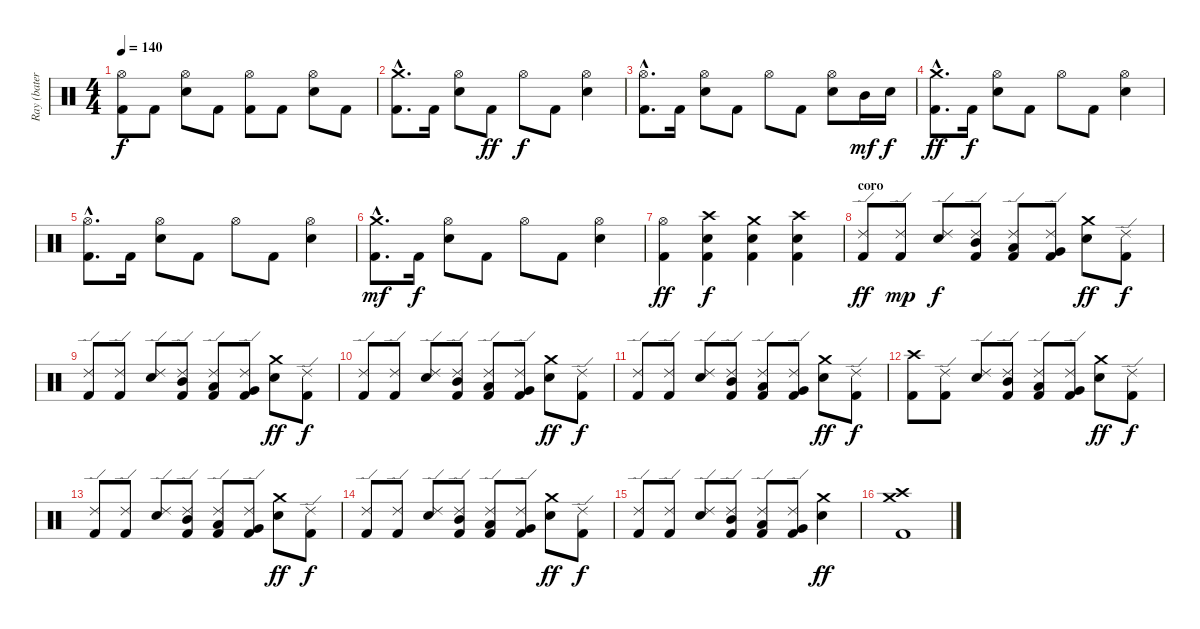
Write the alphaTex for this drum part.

\track ("Ray (batería)" "Ray (bater") {instrument percussion}
\staff {score}
\articulation defaults
\ts (4 4)
\tempo 140
\clef neutral
\ks c
("Hi-Hat (open)" "Kick (hit) 2").8{dy f} "Kick (hit) 2".8 ("Hi-Hat (open)" "Snare (hit) 2").8 "Kick (hit) 2".8 ("Hi-Hat (open)" "Kick (hit) 2").8 "Kick (hit) 2".8 ("Hi-Hat (open)" "Snare (hit) 2").8 "Kick (hit) 2".8 |
("Crash medium (hit)"{hac} "Kick (hit) 2"{hac}).8{d} "Kick (hit) 2".16 ("Hi-Hat (open)" "Snare (hit) 2").8 "Kick (hit) 2".8{dy ff} "Hi-Hat (open)".8{dy f} "Kick (hit) 2".8 ("Hi-Hat (open)" "Snare (hit) 2").4 |
("Hi-Hat (open)"{hac} "Kick (hit) 2"{hac}).8{d} "Kick (hit) 2".16 ("Hi-Hat (open)" "Snare (hit) 2").8 "Kick (hit) 2".8 "Hi-Hat (open)".8 "Kick (hit) 2".8 ("Hi-Hat (open)" "Snare (hit) 2").8 "Mid Tom (hit)".16{dy mf} "Snare (hit) 2".16{dy f} |
("Crash medium (hit)"{hac} "Kick (hit) 2"{hac}).8{d dy ff} "Kick (hit) 2".16{dy f} ("Hi-Hat (open)" "Snare (hit) 2").8 "Kick (hit) 2".8 "Hi-Hat (open)".8 "Kick (hit) 2".8 ("Hi-Hat (open)" "Snare (hit) 2").4 |
("Hi-Hat (open)"{hac} "Kick (hit) 2"{hac}).8{d} "Kick (hit) 2".16 ("Hi-Hat (open)" "Snare (hit) 2").8 "Kick (hit) 2".8 "Hi-Hat (open)".8 "Kick (hit) 2".8 ("Hi-Hat (open)" "Snare (hit) 2").4 |
("Crash medium (hit)"{hac} "Kick (hit) 2"{hac}).8{d dy mf} "Kick (hit) 2".16{dy f} ("Hi-Hat (open)" "Snare (hit) 2").8 "Kick (hit) 2".8 "Hi-Hat (open)".8 "Kick (hit) 2".8 ("Hi-Hat (open)" "Snare (hit) 2").4 |
("Hi-Hat (open)" "Kick (hit) 2").4{dy ff} ("Crash high (hit)" "Snare (hit) 2" "Kick (hit) 2").4{dy f} ("Crash medium (hit)" "Snare (hit) 2" "Kick (hit) 2").4 ("Crash high (hit)" "Snare (hit) 2" "Kick (hit) 2").4 |
\section ("" "coro")
("Ride (edge) 2" "Kick (hit) 2").8{dy ff} ("Ride (edge) 2" "Kick (hit) 2").8{dy mp} ("Ride (edge) 2" "Snare (hit) 2").8{dy f} ("Ride (edge) 2" "Mid Tom (hit)" "Kick (hit) 2").8 ("Ride (edge) 2" "Low Tom (hit)" "Kick (hit) 2").8 ("Ride (edge) 2" "Very Low Tom (hit)" "Kick (hit) 2").8 ("Crash medium (hit)" "Snare (hit) 2").8{dy ff} ("Ride (edge) 2" "Kick (hit) 2").8{dy f} |
("Ride (edge) 2" "Kick (hit) 2").8 ("Ride (edge) 2" "Kick (hit) 2").8 ("Ride (edge) 2" "Snare (hit) 2").8 ("Ride (edge) 2" "Mid Tom (hit)" "Kick (hit) 2").8 ("Ride (edge) 2" "Low Tom (hit)" "Kick (hit) 2").8 ("Ride (edge) 2" "Very Low Tom (hit)" "Kick (hit) 2").8 ("Crash medium (hit)" "Snare (hit) 2").8{dy ff} ("Ride (edge) 2" "Kick (hit) 2").8{dy f} |
("Ride (edge) 2" "Kick (hit) 2").8 ("Ride (edge) 2" "Kick (hit) 2").8 ("Ride (edge) 2" "Snare (hit) 2").8 ("Ride (edge) 2" "Mid Tom (hit)" "Kick (hit) 2").8 ("Ride (edge) 2" "Low Tom (hit)" "Kick (hit) 2").8 ("Ride (edge) 2" "Very Low Tom (hit)" "Kick (hit) 2").8 ("Crash medium (hit)" "Snare (hit) 2").8{dy ff} ("Ride (edge) 2" "Kick (hit) 2").8{dy f} |
("Ride (edge) 2" "Kick (hit) 2").8 ("Ride (edge) 2" "Kick (hit) 2").8 ("Ride (edge) 2" "Snare (hit) 2").8 ("Ride (edge) 2" "Mid Tom (hit)" "Kick (hit) 2").8 ("Ride (edge) 2" "Low Tom (hit)" "Kick (hit) 2").8 ("Ride (edge) 2" "Very Low Tom (hit)" "Kick (hit) 2").8 ("Crash medium (hit)" "Snare (hit) 2").8{dy ff} ("Ride (edge) 2" "Kick (hit) 2").8{dy f} |
("Crash high (hit)" "Kick (hit) 2").8 ("Ride (edge) 2" "Kick (hit) 2").8 ("Ride (edge) 2" "Snare (hit) 2").8 ("Ride (edge) 2" "Mid Tom (hit)" "Kick (hit) 2").8 ("Ride (edge) 2" "Low Tom (hit)" "Kick (hit) 2").8 ("Ride (edge) 2" "Very Low Tom (hit)" "Kick (hit) 2").8 ("Crash medium (hit)" "Snare (hit) 2").8{dy ff} ("Ride (edge) 2" "Kick (hit) 2").8{dy f} |
("Ride (edge) 2" "Kick (hit) 2").8 ("Ride (edge) 2" "Kick (hit) 2").8 ("Ride (edge) 2" "Snare (hit) 2").8 ("Ride (edge) 2" "Mid Tom (hit)" "Kick (hit) 2").8 ("Ride (edge) 2" "Low Tom (hit)" "Kick (hit) 2").8 ("Ride (edge) 2" "Very Low Tom (hit)" "Kick (hit) 2").8 ("Crash medium (hit)" "Snare (hit) 2").8{dy ff} ("Ride (edge) 2" "Kick (hit) 2").8{dy f} |
("Ride (edge) 2" "Kick (hit) 2").8 ("Ride (edge) 2" "Kick (hit) 2").8 ("Ride (edge) 2" "Snare (hit) 2").8 ("Ride (edge) 2" "Mid Tom (hit)" "Kick (hit) 2").8 ("Ride (edge) 2" "Low Tom (hit)" "Kick (hit) 2").8 ("Ride (edge) 2" "Very Low Tom (hit)" "Kick (hit) 2").8 ("Crash medium (hit)" "Snare (hit) 2").8{dy ff} ("Ride (edge) 2" "Kick (hit) 2").8{dy f} |
("Ride (edge) 2" "Kick (hit) 2").8 ("Ride (edge) 2" "Kick (hit) 2").8 ("Ride (edge) 2" "Snare (hit) 2").8 ("Ride (edge) 2" "Mid Tom (hit)" "Kick (hit) 2").8 ("Ride (edge) 2" "Low Tom (hit)" "Kick (hit) 2").8 ("Ride (edge) 2" "Very Low Tom (hit)" "Kick (hit) 2").8 ("Crash medium (hit)" "Snare (hit) 2").4{dy ff} |
("Crash high (hit)" "Crash medium (hit)" "Kick (hit) 2").1
